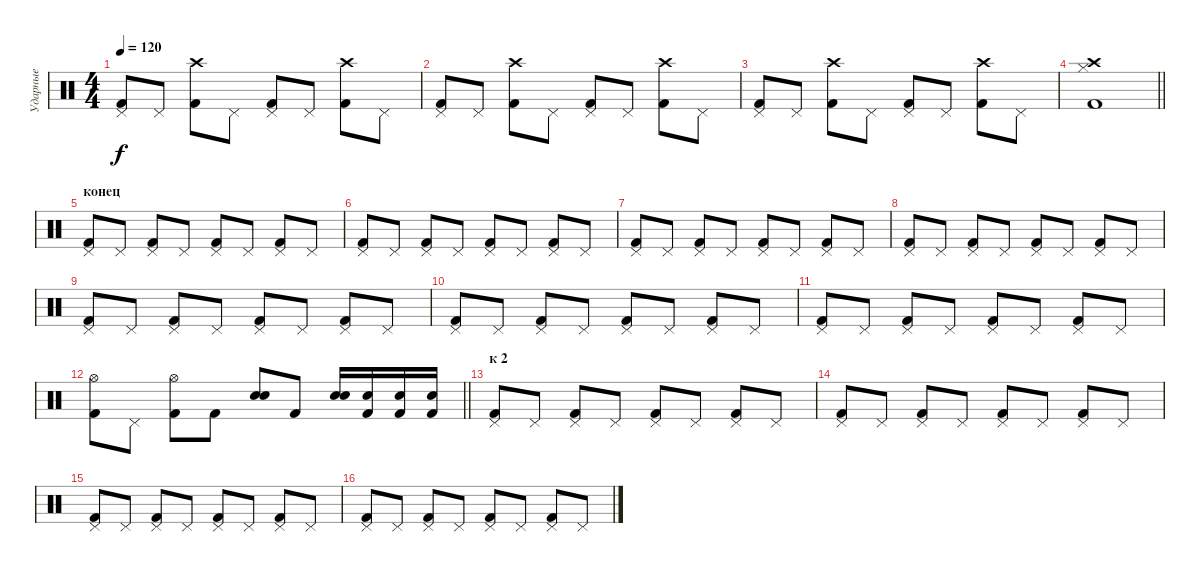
\track ("Ударные" "Ударные") {instrument percussion}
\staff {score}
\articulation defaults
\ts (4 4)
\tempo 120
\clef neutral
\ks c
("Pedal Hi-Hat (hit)" "Kick (hit) 2").8{dy f} "Pedal Hi-Hat (hit)".8 ("Crash high (hit)" "Kick (hit) 2").8 "Pedal Hi-Hat (hit)".8 ("Pedal Hi-Hat (hit)" "Kick (hit) 2").8 "Pedal Hi-Hat (hit)".8 ("Crash high (hit)" "Kick (hit) 2").8 "Pedal Hi-Hat (hit)".8 |
("Pedal Hi-Hat (hit)" "Kick (hit) 2").8 "Pedal Hi-Hat (hit)".8 ("Crash high (hit)" "Kick (hit) 2").8 "Pedal Hi-Hat (hit)".8 ("Pedal Hi-Hat (hit)" "Kick (hit) 2").8 "Pedal Hi-Hat (hit)".8 ("Crash high (hit)" "Kick (hit) 2").8 "Pedal Hi-Hat (hit)".8 |
("Pedal Hi-Hat (hit)" "Kick (hit) 2").8 "Pedal Hi-Hat (hit)".8 ("Crash high (hit)" "Kick (hit) 2").8 "Pedal Hi-Hat (hit)".8 ("Pedal Hi-Hat (hit)" "Kick (hit) 2").8 "Pedal Hi-Hat (hit)".8 ("Crash high (hit)" "Kick (hit) 2").8 "Pedal Hi-Hat (hit)".8 |
\barLineRight lightlight
("Crash high (hit)" "Hi-Hat (closed)" "Kick (hit) 2").1 |
\section ("" "конец")
("Pedal Hi-Hat (hit)" "Kick (hit) 2").8 "Pedal Hi-Hat (hit)".8 ("Pedal Hi-Hat (hit)" "Kick (hit) 2").8 "Pedal Hi-Hat (hit)".8 ("Pedal Hi-Hat (hit)" "Kick (hit) 2").8 "Pedal Hi-Hat (hit)".8 ("Pedal Hi-Hat (hit)" "Kick (hit) 2").8 "Pedal Hi-Hat (hit)".8 |
("Pedal Hi-Hat (hit)" "Kick (hit) 2").8 "Pedal Hi-Hat (hit)".8 ("Pedal Hi-Hat (hit)" "Kick (hit) 2").8 "Pedal Hi-Hat (hit)".8 ("Pedal Hi-Hat (hit)" "Kick (hit) 2").8 "Pedal Hi-Hat (hit)".8 ("Pedal Hi-Hat (hit)" "Kick (hit) 2").8 "Pedal Hi-Hat (hit)".8 |
("Pedal Hi-Hat (hit)" "Kick (hit) 2").8 "Pedal Hi-Hat (hit)".8 ("Pedal Hi-Hat (hit)" "Kick (hit) 2").8 "Pedal Hi-Hat (hit)".8 ("Pedal Hi-Hat (hit)" "Kick (hit) 2").8 "Pedal Hi-Hat (hit)".8 ("Pedal Hi-Hat (hit)" "Kick (hit) 2").8 "Pedal Hi-Hat (hit)".8 |
("Pedal Hi-Hat (hit)" "Kick (hit) 2").8 "Pedal Hi-Hat (hit)".8 ("Pedal Hi-Hat (hit)" "Kick (hit) 2").8 "Pedal Hi-Hat (hit)".8 ("Pedal Hi-Hat (hit)" "Kick (hit) 2").8 "Pedal Hi-Hat (hit)".8 ("Pedal Hi-Hat (hit)" "Kick (hit) 2").8 "Pedal Hi-Hat (hit)".8 |
("Pedal Hi-Hat (hit)" "Kick (hit) 2").8 "Pedal Hi-Hat (hit)".8 ("Pedal Hi-Hat (hit)" "Kick (hit) 2").8 "Pedal Hi-Hat (hit)".8 ("Pedal Hi-Hat (hit)" "Kick (hit) 2").8 "Pedal Hi-Hat (hit)".8 ("Pedal Hi-Hat (hit)" "Kick (hit) 2").8 "Pedal Hi-Hat (hit)".8 |
("Pedal Hi-Hat (hit)" "Kick (hit) 2").8 "Pedal Hi-Hat (hit)".8 ("Pedal Hi-Hat (hit)" "Kick (hit) 2").8 "Pedal Hi-Hat (hit)".8 ("Pedal Hi-Hat (hit)" "Kick (hit) 2").8 "Pedal Hi-Hat (hit)".8 ("Pedal Hi-Hat (hit)" "Kick (hit) 2").8 "Pedal Hi-Hat (hit)".8 |
("Pedal Hi-Hat (hit)" "Kick (hit) 2").8 "Pedal Hi-Hat (hit)".8 ("Pedal Hi-Hat (hit)" "Kick (hit) 2").8 "Pedal Hi-Hat (hit)".8 ("Pedal Hi-Hat (hit)" "Kick (hit) 2").8 "Pedal Hi-Hat (hit)".8 ("Pedal Hi-Hat (hit)" "Kick (hit) 2").8 "Pedal Hi-Hat (hit)".8 |
\barLineRight lightlight
("Hi-Hat (open)" "Kick (hit) 2").8 "Pedal Hi-Hat (hit)".8 ("Hi-Hat (open)" "Kick (hit) 2").8 "Kick (hit) 2".8 ("Snare (hit) 2" "Electric Snare (hit)").8 "Kick (hit) 2".8 ("Snare (hit) 2" "Electric Snare (hit)").16 ("Snare (hit) 2" "Kick (hit) 2").16 ("Snare (hit) 2" "Kick (hit) 2").16 ("Snare (hit) 2" "Kick (hit) 2").16 |
\section ("" "к 2")
("Pedal Hi-Hat (hit)" "Kick (hit) 2").8 "Pedal Hi-Hat (hit)".8 ("Pedal Hi-Hat (hit)" "Kick (hit) 2").8 "Pedal Hi-Hat (hit)".8 ("Pedal Hi-Hat (hit)" "Kick (hit) 2").8 "Pedal Hi-Hat (hit)".8 ("Pedal Hi-Hat (hit)" "Kick (hit) 2").8 "Pedal Hi-Hat (hit)".8 |
("Pedal Hi-Hat (hit)" "Kick (hit) 2").8 "Pedal Hi-Hat (hit)".8 ("Pedal Hi-Hat (hit)" "Kick (hit) 2").8 "Pedal Hi-Hat (hit)".8 ("Pedal Hi-Hat (hit)" "Kick (hit) 2").8 "Pedal Hi-Hat (hit)".8 ("Pedal Hi-Hat (hit)" "Kick (hit) 2").8 "Pedal Hi-Hat (hit)".8 |
("Pedal Hi-Hat (hit)" "Kick (hit) 2").8 "Pedal Hi-Hat (hit)".8 ("Pedal Hi-Hat (hit)" "Kick (hit) 2").8 "Pedal Hi-Hat (hit)".8 ("Pedal Hi-Hat (hit)" "Kick (hit) 2").8 "Pedal Hi-Hat (hit)".8 ("Pedal Hi-Hat (hit)" "Kick (hit) 2").8 "Pedal Hi-Hat (hit)".8 |
("Pedal Hi-Hat (hit)" "Kick (hit) 2").8 "Pedal Hi-Hat (hit)".8 ("Pedal Hi-Hat (hit)" "Kick (hit) 2").8 "Pedal Hi-Hat (hit)".8 ("Pedal Hi-Hat (hit)" "Kick (hit) 2").8 "Pedal Hi-Hat (hit)".8 ("Pedal Hi-Hat (hit)" "Kick (hit) 2").8 "Pedal Hi-Hat (hit)".8
